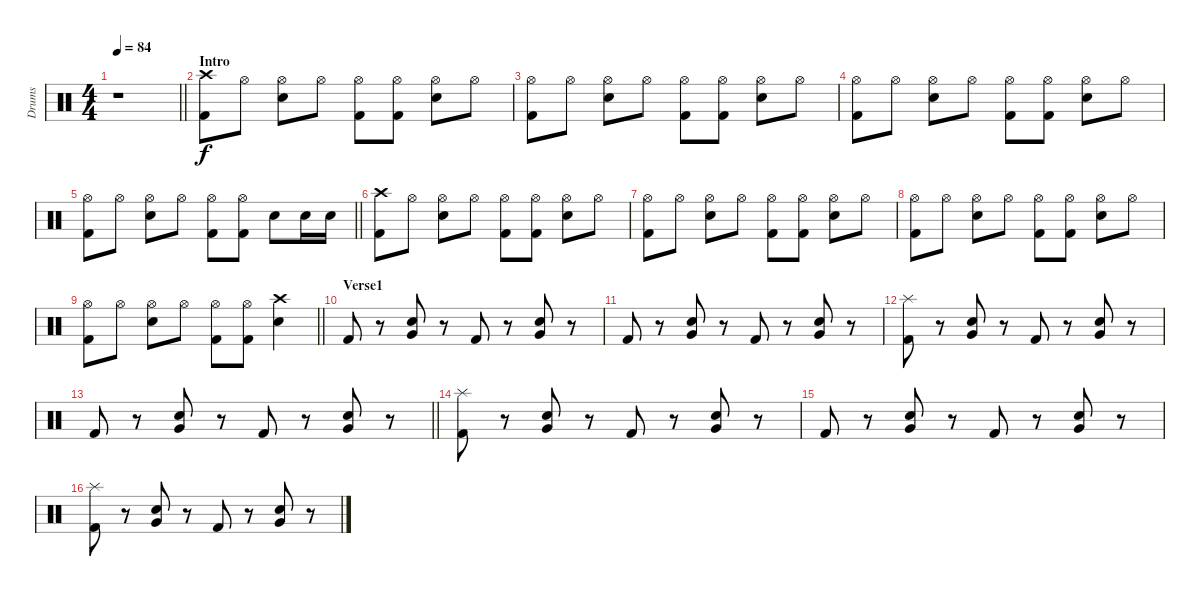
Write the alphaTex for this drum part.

\track ("Drums" "Drums") {instrument percussion}
\staff {score}
\articulation defaults
\ts (4 4)
\tempo 84
\clef neutral
\barLineRight lightlight
\ks c
r.1{dy f} |
\section ("" "Intro")
("Crash high (hit)" "Kick (hit) 2").8 "Hi-Hat (open)".8 ("Hi-Hat (open)" "Snare (hit) 2").8 "Hi-Hat (open)".8 ("Hi-Hat (open)" "Kick (hit) 2").8 ("Hi-Hat (open)" "Kick (hit) 2").8 ("Hi-Hat (open)" "Snare (hit) 2").8 "Hi-Hat (open)".8 |
("Hi-Hat (open)" "Kick (hit) 2").8 "Hi-Hat (open)".8 ("Hi-Hat (open)" "Snare (hit) 2").8 "Hi-Hat (open)".8 ("Hi-Hat (open)" "Kick (hit) 2").8 ("Hi-Hat (open)" "Kick (hit) 2").8 ("Hi-Hat (open)" "Snare (hit) 2").8 "Hi-Hat (open)".8 |
("Hi-Hat (open)" "Kick (hit) 2").8 "Hi-Hat (open)".8 ("Hi-Hat (open)" "Snare (hit) 2").8 "Hi-Hat (open)".8 ("Hi-Hat (open)" "Kick (hit) 2").8 ("Hi-Hat (open)" "Kick (hit) 2").8 ("Hi-Hat (open)" "Snare (hit) 2").8 "Hi-Hat (open)".8 |
\barLineRight lightlight
("Hi-Hat (open)" "Kick (hit) 2").8 "Hi-Hat (open)".8 ("Hi-Hat (open)" "Snare (hit) 2").8 "Hi-Hat (open)".8 ("Hi-Hat (open)" "Kick (hit) 2").8 ("Hi-Hat (open)" "Kick (hit) 2").8 "Snare (hit) 2".8 "Snare (hit) 2".16 "Snare (hit) 2".16 |
("Crash high (hit)" "Kick (hit) 2").8 "Hi-Hat (open)".8 ("Hi-Hat (open)" "Snare (hit) 2").8 "Hi-Hat (open)".8 ("Hi-Hat (open)" "Kick (hit) 2").8 ("Hi-Hat (open)" "Kick (hit) 2").8 ("Hi-Hat (open)" "Snare (hit) 2").8 "Hi-Hat (open)".8 |
("Hi-Hat (open)" "Kick (hit) 2").8 "Hi-Hat (open)".8 ("Hi-Hat (open)" "Snare (hit) 2").8 "Hi-Hat (open)".8 ("Hi-Hat (open)" "Kick (hit) 2").8 ("Hi-Hat (open)" "Kick (hit) 2").8 ("Hi-Hat (open)" "Snare (hit) 2").8 "Hi-Hat (open)".8 |
("Hi-Hat (open)" "Kick (hit) 2").8 "Hi-Hat (open)".8 ("Hi-Hat (open)" "Snare (hit) 2").8 "Hi-Hat (open)".8 ("Hi-Hat (open)" "Kick (hit) 2").8 ("Hi-Hat (open)" "Kick (hit) 2").8 ("Hi-Hat (open)" "Snare (hit) 2").8 "Hi-Hat (open)".8 |
\barLineRight lightlight
("Hi-Hat (open)" "Kick (hit) 2").8 "Hi-Hat (open)".8 ("Hi-Hat (open)" "Snare (hit) 2").8 "Hi-Hat (open)".8 ("Hi-Hat (open)" "Kick (hit) 2").8 ("Hi-Hat (open)" "Kick (hit) 2").8 ("Crash high (hit)" "Snare (hit) 2").4 |
\section ("" "Verse1")
"Kick (hit) 2".8 r.8 ("Very Low Tom (hit)" "Snare (hit) 2").8 r.8 "Kick (hit) 2".8 r.8 ("Very Low Tom (hit)" "Snare (hit) 2").8 r.8 |
"Kick (hit) 2".8 r.8 ("Very Low Tom (hit)" "Snare (hit) 2").8 r.8 "Kick (hit) 2".8 r.8 ("Very Low Tom (hit)" "Snare (hit) 2").8 r.8 |
("Splash (hit)" "Kick (hit) 2").8 r.8 ("Very Low Tom (hit)" "Snare (hit) 2").8 r.8 "Kick (hit) 2".8 r.8 ("Very Low Tom (hit)" "Snare (hit) 2").8 r.8 |
\barLineRight lightlight "Kick (hit) 2".8
r.8 ("Very Low Tom (hit)" "Snare (hit) 2").8 r.8 "Kick (hit) 2".8 r.8 ("Very Low Tom (hit)" "Snare (hit) 2").8 r.8 |
("Splash (hit)" "Kick (hit) 2").8 r.8 ("Very Low Tom (hit)" "Snare (hit) 2").8 r.8 "Kick (hit) 2".8 r.8 ("Very Low Tom (hit)" "Snare (hit) 2").8 r.8 |
"Kick (hit) 2".8 r.8 ("Very Low Tom (hit)" "Snare (hit) 2").8 r.8 "Kick (hit) 2".8 r.8 ("Very Low Tom (hit)" "Snare (hit) 2").8 r.8 |
("Splash (hit)" "Kick (hit) 2").8 r.8 ("Very Low Tom (hit)" "Snare (hit) 2").8 r.8 "Kick (hit) 2".8 r.8 ("Very Low Tom (hit)" "Snare (hit) 2").8 r.8
